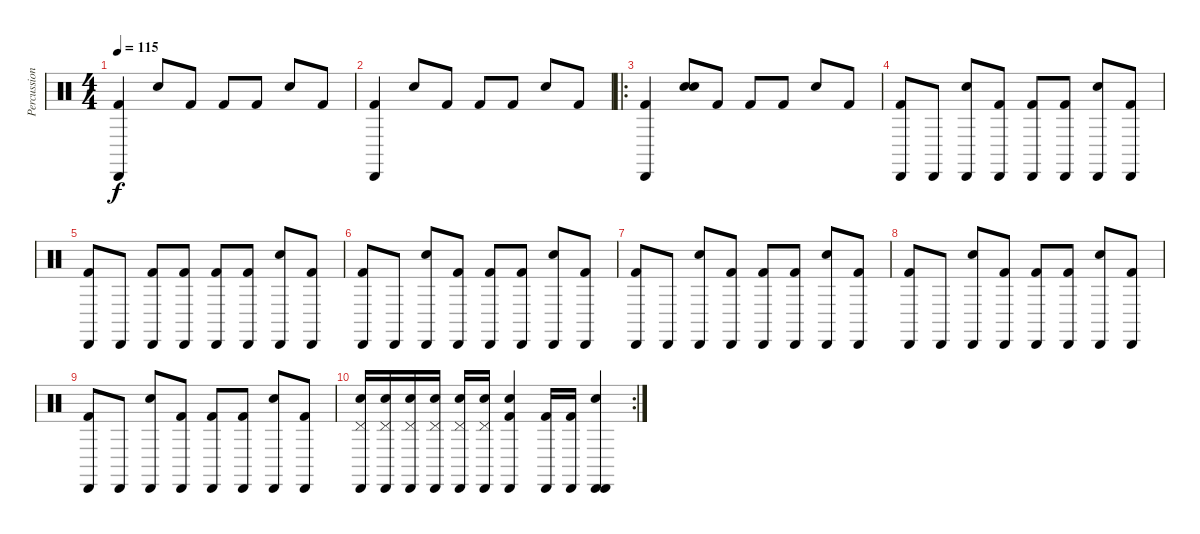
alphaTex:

\track ("Percussion" "Percussion") {instrument percussion}
\staff {score}
\articulation defaults
\ts (4 4)
\tempo 115
\clef neutral
\ks c
("Cabasa (hit)" "Kick (hit) 2").4{dy f} "Snare (hit) 2".8 "Kick (hit) 2".8 "Kick (hit) 2".8 "Kick (hit) 2".8 "Snare (hit) 2".8 "Kick (hit) 2".8 |
("Kick (hit) 2" "Cabasa (hit)").4 "Snare (hit) 2".8 "Kick (hit) 2".8 "Kick (hit) 2".8 "Kick (hit) 2".8 "Snare (hit) 2".8 "Kick (hit) 2".8 |
\ro
("Cabasa (hit)" "Kick (hit) 2").4 ("Snare (hit) 2" "Snare (hit)").8 "Kick (hit) 2".8 "Kick (hit) 2".8 "Kick (hit) 2".8 "Snare (hit) 2".8 "Kick (hit) 2".8 |
("Cabasa (hit)" "Kick (hit) 2").8 "Cabasa (hit)".8 ("Cabasa (hit)" "Snare (hit) 2").8 ("Kick (hit) 2" "Cabasa (hit)").8 ("Cabasa (hit)" "Kick (hit) 2").8 ("Kick (hit) 2" "Cabasa (hit)").8 ("Cabasa (hit)" "Snare (hit) 2").8 ("Kick (hit) 2" "Cabasa (hit)").8 |
("Cabasa (hit)" "Kick (hit) 2").8 "Cabasa (hit)".8 ("Kick (hit) 2" "Cabasa (hit)").8 ("Cabasa (hit)" "Kick (hit) 2").8 ("Cabasa (hit)" "Kick (hit) 2").8 ("Cabasa (hit)" "Kick (hit) 2").8 ("Cabasa (hit)" "Snare (hit) 2").8 ("Cabasa (hit)" "Kick (hit) 2").8 |
("Cabasa (hit)" "Kick (hit) 2").8 "Cabasa (hit)".8 ("Cabasa (hit)" "Snare (hit) 2").8 ("Cabasa (hit)" "Kick (hit) 2").8 ("Cabasa (hit)" "Kick (hit) 2").8 ("Cabasa (hit)" "Kick (hit) 2").8 ("Cabasa (hit)" "Snare (hit) 2").8 ("Cabasa (hit)" "Kick (hit) 2").8 |
("Cabasa (hit)" "Kick (hit) 2").8 "Cabasa (hit)".8 ("Cabasa (hit)" "Snare (hit) 2").8 ("Cabasa (hit)" "Kick (hit) 2").8 ("Cabasa (hit)" "Kick (hit) 2").8 ("Cabasa (hit)" "Kick (hit) 2").8 ("Cabasa (hit)" "Snare (hit) 2").8 ("Cabasa (hit)" "Kick (hit) 2").8 |
("Cabasa (hit)" "Kick (hit) 2").8 "Cabasa (hit)".8 ("Cabasa (hit)" "Snare (hit) 2").8 ("Cabasa (hit)" "Kick (hit) 2").8 ("Cabasa (hit)" "Kick (hit) 2").8 ("Cabasa (hit)" "Kick (hit) 2").8 ("Cabasa (hit)" "Snare (hit) 2").8 ("Cabasa (hit)" "Kick (hit) 2").8 |
("Cabasa (hit)" "Kick (hit) 2").8 "Cabasa (hit)".8 ("Cabasa (hit)" "Snare (hit) 2").8 ("Cabasa (hit)" "Kick (hit) 2").8 ("Cabasa (hit)" "Kick (hit) 2").8 ("Cabasa (hit)" "Kick (hit) 2").8 ("Cabasa (hit)" "Snare (hit) 2").8 ("Cabasa (hit)" "Kick (hit) 2").8 |
\rc 2
("Cabasa (hit)" "Snare (hit) 2" "Pedal Hi-Hat (hit)").16 ("Snare (hit) 2" "Cabasa (hit)" "Pedal Hi-Hat (hit)").16 ("Snare (hit) 2" "Cabasa (hit)" "Pedal Hi-Hat (hit)").16 ("Cabasa (hit)" "Pedal Hi-Hat (hit)" "Snare (hit) 2").16 ("Pedal Hi-Hat (hit)" "Cabasa (hit)" "Snare (hit) 2").16 ("Cabasa (hit)" "Pedal Hi-Hat (hit)" "Snare (hit) 2").16 ("Snare (hit) 2" "Kick (hit) 2" "Cabasa (hit)").4 ("Cabasa (hit)" "Kick (hit) 2").16 ("Cabasa (hit)" "Kick (hit) 2").16 ("Cabasa (hit)" "Cabasa (hit)" "Snare (hit) 2").4
